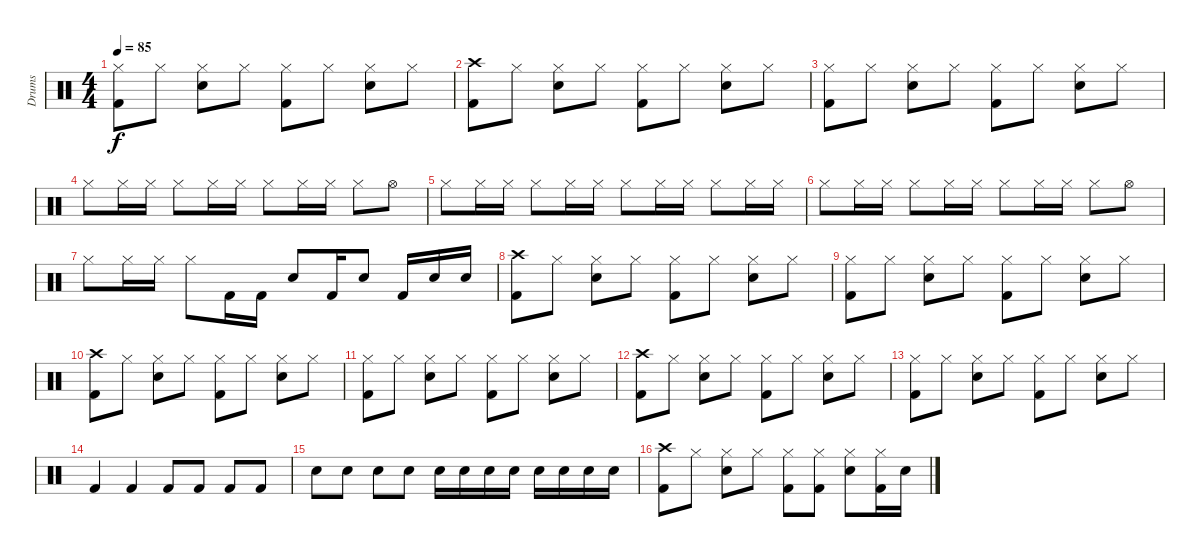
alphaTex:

\track ("Drums" "Drums") {instrument percussion}
\staff {score}
\articulation defaults
\ts (4 4)
\tempo 85
\clef neutral
\ks c
("Hi-Hat (closed)" "Kick (hit) 2").8{dy f} "Hi-Hat (closed)".8 ("Hi-Hat (closed)" "Snare (hit) 2").8 "Hi-Hat (closed)".8 ("Hi-Hat (closed)" "Kick (hit) 2").8 "Hi-Hat (closed)".8 ("Hi-Hat (closed)" "Snare (hit) 2").8 "Hi-Hat (closed)".8 |
("Crash high (hit)" "Kick (hit) 2").8 "Hi-Hat (closed)".8 ("Hi-Hat (closed)" "Snare (hit) 2").8 "Hi-Hat (closed)".8 ("Hi-Hat (closed)" "Kick (hit) 2").8 "Hi-Hat (closed)".8 ("Hi-Hat (closed)" "Snare (hit) 2").8 "Hi-Hat (closed)".8 |
("Hi-Hat (closed)" "Kick (hit) 2").8 "Hi-Hat (closed)".8 ("Hi-Hat (closed)" "Snare (hit) 2").8 "Hi-Hat (closed)".8 ("Hi-Hat (closed)" "Kick (hit) 2").8 "Hi-Hat (closed)".8 ("Hi-Hat (closed)" "Snare (hit) 2").8 "Hi-Hat (closed)".8 |
"Hi-Hat (closed)".8 "Hi-Hat (closed)".16 "Hi-Hat (closed)".16 "Hi-Hat (closed)".8 "Hi-Hat (closed)".16 "Hi-Hat (closed)".16 "Hi-Hat (closed)".8 "Hi-Hat (closed)".16 "Hi-Hat (closed)".16 "Hi-Hat (closed)".8 "Hi-Hat (open)".8 |
"Hi-Hat (closed)".8 "Hi-Hat (closed)".16 "Hi-Hat (closed)".16 "Hi-Hat (closed)".8 "Hi-Hat (closed)".16 "Hi-Hat (closed)".16 "Hi-Hat (closed)".8 "Hi-Hat (closed)".16 "Hi-Hat (closed)".16 "Hi-Hat (closed)".8 "Hi-Hat (closed)".16 "Hi-Hat (closed)".16 |
"Hi-Hat (closed)".8 "Hi-Hat (closed)".16 "Hi-Hat (closed)".16 "Hi-Hat (closed)".8 "Hi-Hat (closed)".16 "Hi-Hat (closed)".16 "Hi-Hat (closed)".8 "Hi-Hat (closed)".16 "Hi-Hat (closed)".16 "Hi-Hat (closed)".8 "Hi-Hat (open)".8 |
"Hi-Hat (closed)".8 "Hi-Hat (closed)".16 "Hi-Hat (closed)".16 "Hi-Hat (closed)".8 "Kick (hit) 2".16 "Kick (hit) 2".16 "Snare (hit) 2".8 "Kick (hit) 2".16 "Snare (hit) 2".8 "Kick (hit) 2".16 "Snare (hit) 2".16 "Snare (hit) 2".16 |
("Crash high (hit)" "Kick (hit) 2").8 "Hi-Hat (closed)".8 ("Hi-Hat (closed)" "Snare (hit) 2").8 "Hi-Hat (closed)".8 ("Hi-Hat (closed)" "Kick (hit) 2").8 "Hi-Hat (closed)".8 ("Hi-Hat (closed)" "Snare (hit) 2").8 "Hi-Hat (closed)".8 |
("Hi-Hat (closed)" "Kick (hit) 2").8 "Hi-Hat (closed)".8 ("Hi-Hat (closed)" "Snare (hit) 2").8 "Hi-Hat (closed)".8 ("Hi-Hat (closed)" "Kick (hit) 2").8 "Hi-Hat (closed)".8 ("Hi-Hat (closed)" "Snare (hit) 2").8 "Hi-Hat (closed)".8 |
("Crash high (hit)" "Kick (hit) 2").8 "Hi-Hat (closed)".8 ("Hi-Hat (closed)" "Snare (hit) 2").8 "Hi-Hat (closed)".8 ("Hi-Hat (closed)" "Kick (hit) 2").8 "Hi-Hat (closed)".8 ("Hi-Hat (closed)" "Snare (hit) 2").8 "Hi-Hat (closed)".8 |
("Hi-Hat (closed)" "Kick (hit) 2").8 "Hi-Hat (closed)".8 ("Hi-Hat (closed)" "Snare (hit) 2").8 "Hi-Hat (closed)".8 ("Hi-Hat (closed)" "Kick (hit) 2").8 "Hi-Hat (closed)".8 ("Hi-Hat (closed)" "Snare (hit) 2").8 "Hi-Hat (closed)".8 |
("Crash high (hit)" "Kick (hit) 2").8 "Hi-Hat (closed)".8 ("Hi-Hat (closed)" "Snare (hit) 2").8 "Hi-Hat (closed)".8 ("Hi-Hat (closed)" "Kick (hit) 2").8 "Hi-Hat (closed)".8 ("Hi-Hat (closed)" "Snare (hit) 2").8 "Hi-Hat (closed)".8 |
("Hi-Hat (closed)" "Kick (hit) 2").8 "Hi-Hat (closed)".8 ("Hi-Hat (closed)" "Snare (hit) 2").8 "Hi-Hat (closed)".8 ("Hi-Hat (closed)" "Kick (hit) 2").8 "Hi-Hat (closed)".8 ("Hi-Hat (closed)" "Snare (hit) 2").8 "Hi-Hat (closed)".8 |
"Kick (hit) 2".4 "Kick (hit) 2".4 "Kick (hit) 2".8 "Kick (hit) 2".8 "Kick (hit) 2".8 "Kick (hit) 2".8 |
"Snare (hit) 2".8 "Snare (hit) 2".8 "Snare (hit) 2".8 "Snare (hit) 2".8 "Snare (hit) 2".16 "Snare (hit) 2".16 "Snare (hit) 2".16 "Snare (hit) 2".16 "Snare (hit) 2".16 "Snare (hit) 2".16 "Snare (hit) 2".16 "Snare (hit) 2".16 |
("Crash high (hit)" "Kick (hit) 2").8 "Hi-Hat (closed)".8 ("Hi-Hat (closed)" "Snare (hit) 2").8 "Hi-Hat (closed)".8 ("Hi-Hat (closed)" "Kick (hit) 2").8 ("Hi-Hat (closed)" "Kick (hit) 2").8 ("Hi-Hat (closed)" "Snare (hit) 2").8 ("Hi-Hat (closed)" "Kick (hit) 2").16 "Snare (hit) 2".16
